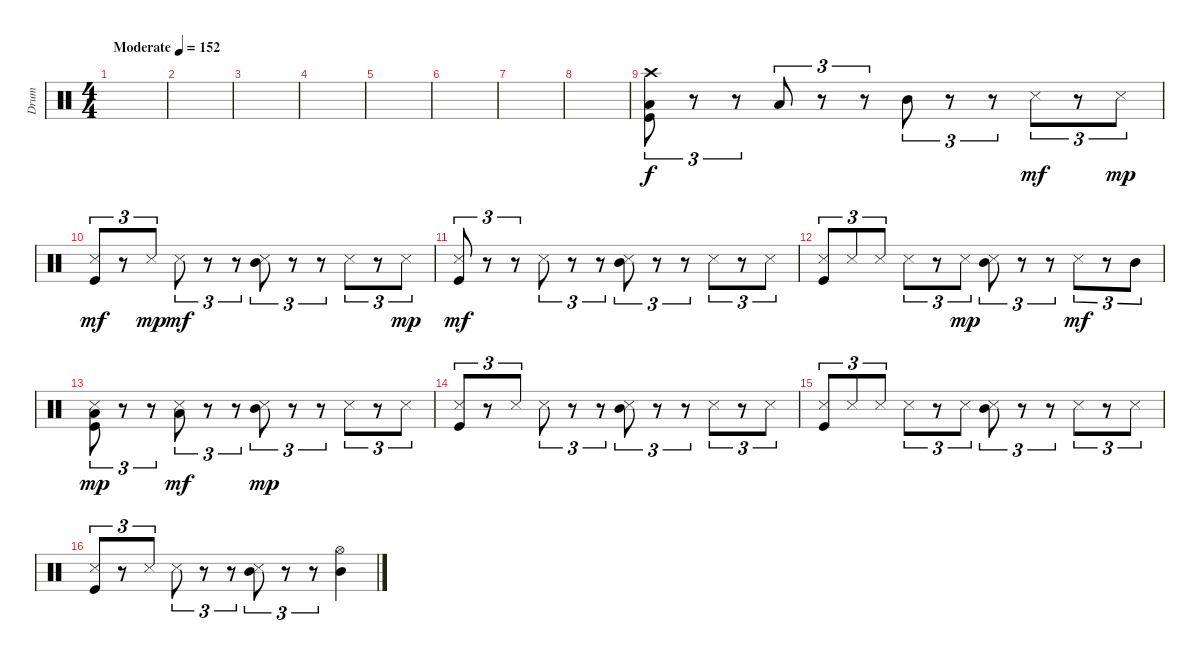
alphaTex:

\track ("Drum" "Drum") {instrument percussion}
\staff {score}
\articulation defaults
\ts (4 4)
\tempo (152 "Moderate")
\clef neutral
\ks c
|
|
|
|
|
|
|
|
("Crash high (hit)" "Low Floor Tom (hit)" "Kick (hit)").8{tu (3 2)} r.8{tu (3 2)} r.8{tu (3 2)} "Low Floor Tom (hit)".8{tu (3 2)} r.8{tu (3 2)} r.8{tu (3 2)} "Mid Tom (hit)".8{tu (3 2) dy f} r.8{tu (3 2)} r.8{tu (3 2)} "Snare (side stick) 3".8{tu (3 2) dy mf} r.8{tu (3 2)} "Snare (side stick) 3".8{tu (3 2) dy mp} |
("Snare (side stick) 3" "Kick (hit)").8{tu (3 2) dy mf} r.8{tu (3 2)} "Snare (side stick) 3".8{tu (3 2) dy mp} "Snare (side stick) 3".8{tu (3 2) dy mf} r.8{tu (3 2)} r.8{tu (3 2)} ("Snare (side stick) 3" "Mid Tom (hit)").8{tu (3 2)} r.8{tu (3 2)} r.8{tu (3 2)} "Snare (side stick) 3".8{tu (3 2)} r.8{tu (3 2)} "Snare (side stick) 3".8{tu (3 2) dy mp} |
("Snare (side stick) 3" "Kick (hit)").8{tu (3 2) dy mf} r.8{tu (3 2)} r.8{tu (3 2)} "Snare (side stick) 3".8{tu (3 2)} r.8{tu (3 2)} r.8{tu (3 2)} ("Snare (side stick) 3" "Mid Tom (hit)").8{tu (3 2)} r.8{tu (3 2)} r.8{tu (3 2)} "Snare (side stick) 3".8{tu (3 2)} r.8{tu (3 2)} "Snare (side stick) 3".8{tu (3 2)} |
("Snare (side stick) 3" "Kick (hit)").8{tu (3 2)} "Snare (side stick) 3".8{tu (3 2)} "Snare (side stick) 3".8{tu (3 2)} "Snare (side stick) 3".8{tu (3 2)} r.8{tu (3 2)} "Snare (side stick) 3".8{tu (3 2) dy mp} ("Snare (side stick) 3" "Mid Tom (hit)").8{tu (3 2)} r.8{tu (3 2)} r.8{tu (3 2)} "Snare (side stick) 3".8{tu (3 2) dy mf} r.8{tu (3 2)} "Mid Tom (hit)".8{tu (3 2)} |
("Snare (side stick) 3" "Low Floor Tom (hit)" "Kick (hit)").8{tu (3 2) dy mp} r.8{tu (3 2)} r.8{tu (3 2)} ("Snare (side stick) 3" "Low Floor Tom (hit)").8{tu (3 2) dy mf} r.8{tu (3 2)} r.8{tu (3 2)} ("Snare (side stick) 3" "Mid Tom (hit)").8{tu (3 2) dy mp} r.8{tu (3 2)} r.8{tu (3 2)} "Snare (side stick) 3".8{tu (3 2)} r.8{tu (3 2)} "Snare (side stick) 3".8{tu (3 2)} |
("Snare (side stick) 3" "Kick (hit)").8{tu (3 2)} r.8{tu (3 2)} "Snare (side stick) 3".8{tu (3 2)} "Snare (side stick) 3".8{tu (3 2)} r.8{tu (3 2)} r.8{tu (3 2)} ("Snare (side stick) 3" "Mid Tom (hit)").8{tu (3 2)} r.8{tu (3 2)} r.8{tu (3 2)} "Snare (side stick) 3".8{tu (3 2)} r.8{tu (3 2)} "Snare (side stick) 3".8{tu (3 2)} |
("Snare (side stick) 3" "Kick (hit)").8{tu (3 2)} "Snare (side stick) 3".8{tu (3 2)} "Snare (side stick) 3".8{tu (3 2)} "Snare (side stick) 3".8{tu (3 2)} r.8{tu (3 2)} "Snare (side stick) 3".8{tu (3 2)} ("Snare (side stick) 3" "Mid Tom (hit)").8{tu (3 2)} r.8{tu (3 2)} r.8{tu (3 2)} "Snare (side stick) 3".8{tu (3 2)} r.8{tu (3 2)} "Snare (side stick) 3".8{tu (3 2)} |
("Snare (side stick) 3" "Kick (hit)").8{tu (3 2)} r.8{tu (3 2)} "Snare (side stick) 3".8{tu (3 2)} "Snare (side stick) 3".8{tu (3 2)} r.8{tu (3 2)} r.8{tu (3 2)} ("Snare (side stick) 3" "Mid Tom (hit)").8{tu (3 2)} r.8{tu (3 2)} r.8{tu (3 2)} ("Hi-Hat (open)" "Mid Tom (hit)").4
